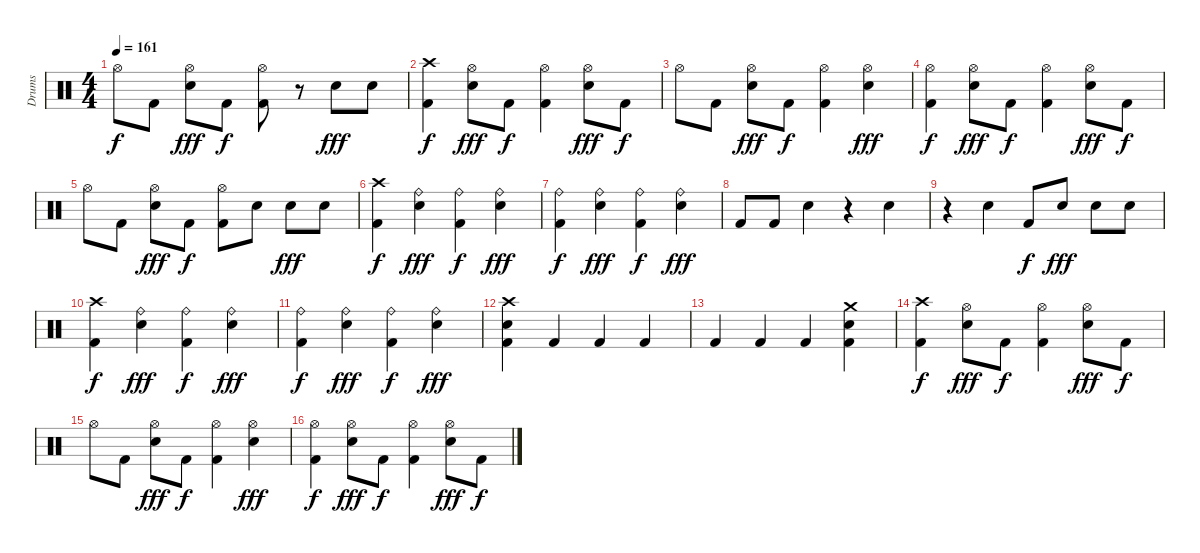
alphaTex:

\track ("Drums" "Drums") {instrument percussion}
\staff {score}
\articulation defaults
\ts (4 4)
\tempo 161
\clef neutral
\ks c "Hi-Hat (open)".8{dy f} "Kick (hit) 2".8
("Hi-Hat (open)" "Electric Snare (hit)").8{dy fff} "Kick (hit) 2".8{dy f} ("Hi-Hat (open)" "Kick (hit) 2").8 r.8 "Electric Snare (hit)".8{dy fff} "Electric Snare (hit)".8 |
("Crash high (hit)" "Kick (hit) 2").4{dy f} ("Hi-Hat (open)" "Electric Snare (hit)").8{dy fff} "Kick (hit) 2".8{dy f} ("Hi-Hat (open)" "Kick (hit) 2").4 ("Hi-Hat (open)" "Electric Snare (hit)").8{dy fff} "Kick (hit) 2".8{dy f} |
"Hi-Hat (open)".8 "Kick (hit) 2".8 ("Hi-Hat (open)" "Electric Snare (hit)").8{dy fff} "Kick (hit) 2".8{dy f} ("Hi-Hat (open)" "Kick (hit) 2").4 ("Hi-Hat (open)" "Electric Snare (hit)").4{dy fff} |
("Hi-Hat (open)" "Kick (hit) 2").4{dy f} ("Hi-Hat (open)" "Electric Snare (hit)").8{dy fff} "Kick (hit) 2".8{dy f} ("Hi-Hat (open)" "Kick (hit) 2").4 ("Hi-Hat (open)" "Electric Snare (hit)").8{dy fff} "Kick (hit) 2".8{dy f} |
"Hi-Hat (open)".8 "Kick (hit) 2".8 ("Hi-Hat (open)" "Electric Snare (hit)").8{dy fff} "Kick (hit) 2".8{dy f} ("Hi-Hat (open)" "Kick (hit) 2").8 "Electric Snare (hit)".8 "Electric Snare (hit)".8{dy fff} "Electric Snare (hit)".8 |
("Crash high (hit)" "Kick (hit) 2").4{dy f} ("Ride (bell)" "Electric Snare (hit)").4{dy fff} ("Ride (bell)" "Kick (hit) 2").4{dy f} ("Ride (bell)" "Electric Snare (hit)").4{dy fff} |
("Ride (bell)" "Kick (hit) 2").4{dy f} ("Ride (bell)" "Electric Snare (hit)").4{dy fff} ("Ride (bell)" "Kick (hit) 2").4{dy f} ("Ride (bell)" "Electric Snare (hit)").4{dy fff} |
"Kick (hit) 2".8 "Kick (hit) 2".8 "Electric Snare (hit)".4 r.4 "Electric Snare (hit)".4 |
r.4 "Electric Snare (hit)".4 "Kick (hit) 2".8{dy f} "Electric Snare (hit)".8{dy fff} "Electric Snare (hit)".8 "Electric Snare (hit)".8 |
("Crash high (hit)" "Kick (hit) 2").4{dy f} ("Ride (bell)" "Electric Snare (hit)").4{dy fff} ("Ride (bell)" "Kick (hit) 2").4{dy f} ("Ride (bell)" "Electric Snare (hit)").4{dy fff} |
("Ride (bell)" "Kick (hit) 2").4{dy f} ("Ride (bell)" "Electric Snare (hit)").4{dy fff} ("Ride (bell)" "Kick (hit) 2").4{dy f} ("Ride (bell)" "Electric Snare (hit)").4{dy fff} |
("Crash high (hit)" "Electric Snare (hit)" "Kick (hit) 2").4 "Kick (hit) 2".4 "Kick (hit) 2".4 "Kick (hit) 2".4 |
"Kick (hit) 2".4 "Kick (hit) 2".4 "Kick (hit) 2".4 ("Crash medium (hit)" "Electric Snare (hit)" "Kick (hit) 2").4 |
("Crash high (hit)" "Kick (hit) 2").4{dy f} ("Hi-Hat (open)" "Electric Snare (hit)").8{dy fff} "Kick (hit) 2".8{dy f} ("Hi-Hat (open)" "Kick (hit) 2").4 ("Hi-Hat (open)" "Electric Snare (hit)").8{dy fff} "Kick (hit) 2".8{dy f} |
"Hi-Hat (open)".8 "Kick (hit) 2".8 ("Hi-Hat (open)" "Electric Snare (hit)").8{dy fff} "Kick (hit) 2".8{dy f} ("Hi-Hat (open)" "Kick (hit) 2").4 ("Hi-Hat (open)" "Electric Snare (hit)").4{dy fff} |
("Hi-Hat (open)" "Kick (hit) 2").4{dy f} ("Hi-Hat (open)" "Electric Snare (hit)").8{dy fff} "Kick (hit) 2".8{dy f} ("Hi-Hat (open)" "Kick (hit) 2").4 ("Hi-Hat (open)" "Electric Snare (hit)").8{dy fff} "Kick (hit) 2".8{dy f}
